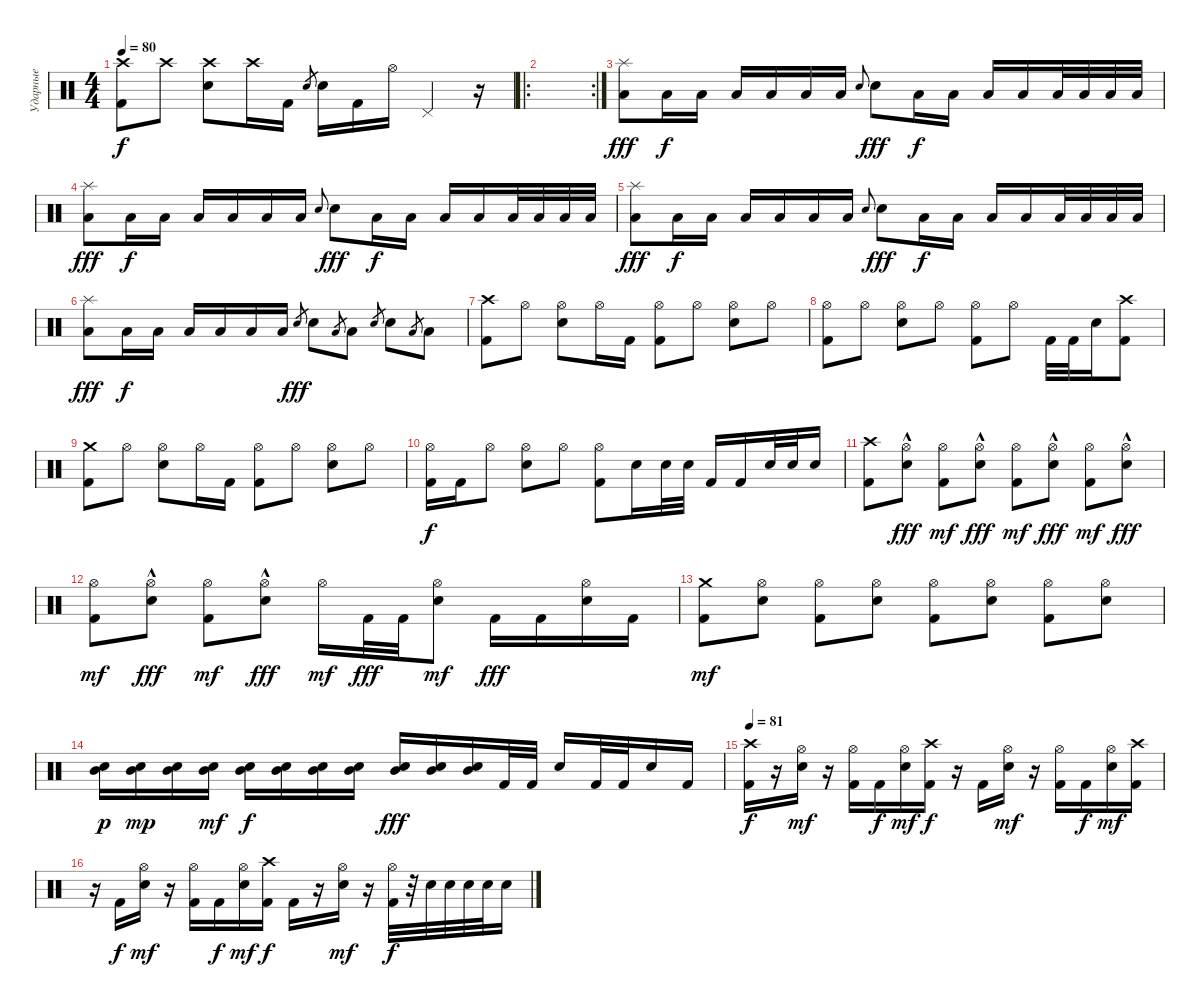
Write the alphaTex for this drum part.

\track ("Ударные" "Ударные") {instrument percussion}
\staff {score}
\articulation defaults
\ts (4 4)
\tempo 80
\clef neutral
\ks c
("Crash high (hit)" "Kick (hit) 2").8{dy f} "Crash high (hit)".8 ("Crash high (hit)" "Electric Snare (hit)").8 "Crash high (hit)".16 "Kick (hit) 2".16 "Electric Snare (hit)".8{gr} "Electric Snare (hit)".16 "Kick (hit) 2".16 "Hi-Hat (open)".16 "Pedal Hi-Hat (hit)".4 r.16 |
\ro
\rc 2
|
("Low Tom (hit)" "Splash (hit)").8{dy fff} "Low Tom (hit)".16{dy f} "Low Tom (hit)".16 "Low Tom (hit)".16 "Low Tom (hit)".16 "Low Tom (hit)".16 "Low Tom (hit)".16 "Electric Snare (hit)".8{gr onbeat} "Electric Snare (hit)".8{dy fff} "Low Tom (hit)".16{dy f} "Low Tom (hit)".16 "Low Tom (hit)".16 "Low Tom (hit)".16 "Low Tom (hit)".32 "Low Tom (hit)".32 "Low Tom (hit)".32 "Low Tom (hit)".32 |
("Low Tom (hit)" "Splash (hit)").8{dy fff} "Low Tom (hit)".16{dy f} "Low Tom (hit)".16 "Low Tom (hit)".16 "Low Tom (hit)".16 "Low Tom (hit)".16 "Low Tom (hit)".16 "Electric Snare (hit)".8{gr onbeat} "Electric Snare (hit)".8{dy fff} "Low Tom (hit)".16{dy f} "Low Tom (hit)".16 "Low Tom (hit)".16 "Low Tom (hit)".16 "Low Tom (hit)".32 "Low Tom (hit)".32 "Low Tom (hit)".32 "Low Tom (hit)".32 |
("Low Tom (hit)" "Splash (hit)").8{dy fff} "Low Tom (hit)".16{dy f} "Low Tom (hit)".16 "Low Tom (hit)".16 "Low Tom (hit)".16 "Low Tom (hit)".16 "Low Tom (hit)".16 "Electric Snare (hit)".8{gr onbeat} "Electric Snare (hit)".8{dy fff} "Low Tom (hit)".16{dy f} "Low Tom (hit)".16 "Low Tom (hit)".16 "Low Tom (hit)".16 "Low Tom (hit)".32 "Low Tom (hit)".32 "Low Tom (hit)".32 "Low Tom (hit)".32 |
("Low Tom (hit)" "Splash (hit)").8{dy fff} "Low Tom (hit)".16{dy f} "Low Tom (hit)".16 "Low Tom (hit)".16 "Low Tom (hit)".16 "Low Tom (hit)".16 "Low Tom (hit)".16 "Electric Snare (hit)".8{gr dy fff} "Electric Snare (hit)".8 "Low Tom (hit)".8{gr} "Low Tom (hit)".8 "Electric Snare (hit)".8{gr} "Electric Snare (hit)".8 "Low Tom (hit)".8{gr} "Low Tom (hit)".8 |
("Crash high (hit)" "Kick (hit) 2").8 "Hi-Hat (open)".8 ("Hi-Hat (open)" "Electric Snare (hit)").8 "Hi-Hat (open)".16 "Kick (hit) 2".16 ("Kick (hit) 2" "Hi-Hat (open)").8 "Hi-Hat (open)".8 ("Hi-Hat (open)" "Electric Snare (hit)").8 "Hi-Hat (open)".8 |
("Hi-Hat (open)" "Kick (hit) 2").8 "Hi-Hat (open)".8 ("Hi-Hat (open)" "Electric Snare (hit)").8 "Hi-Hat (open)".8 ("Hi-Hat (open)" "Kick (hit) 2").8 "Hi-Hat (open)".8 "Kick (hit) 2".32 "Kick (hit) 2".32 "Electric Snare (hit)".16 ("Kick (hit) 2" "Crash high (hit)").8 |
("Crash medium (hit)" "Kick (hit) 2").8 "Hi-Hat (open)".8 ("Hi-Hat (open)" "Electric Snare (hit)").8 "Hi-Hat (open)".16 "Kick (hit) 2".16 ("Kick (hit) 2" "Hi-Hat (open)").8 "Hi-Hat (open)".8 ("Hi-Hat (open)" "Electric Snare (hit)").8 "Hi-Hat (open)".8 |
("Kick (hit) 2" "Hi-Hat (open)").16{dy f} "Kick (hit) 2".16 "Hi-Hat (open)".8 ("Hi-Hat (open)" "Electric Snare (hit)").8 "Hi-Hat (open)".8 ("Hi-Hat (open)" "Kick (hit) 2").8 "Electric Snare (hit)".16 "Electric Snare (hit)".32 "Electric Snare (hit)".32 "Kick (hit) 2".16 "Kick (hit) 2".16 "Electric Snare (hit)".32 "Electric Snare (hit)".32 "Electric Snare (hit)".16 |
("Crash high (hit)" "Kick (hit) 2").8 ("Hi-Hat (open)" "Electric Snare (hit)"{hac}).8{dy fff} ("Hi-Hat (open)" "Kick (hit) 2").8{dy mf} ("Hi-Hat (open)" "Electric Snare (hit)"{hac}).8{dy fff} ("Hi-Hat (open)" "Kick (hit) 2").8{dy mf} ("Hi-Hat (open)" "Electric Snare (hit)"{hac}).8{dy fff} ("Hi-Hat (open)" "Kick (hit) 2").8{dy mf} ("Hi-Hat (open)" "Electric Snare (hit)"{hac}).8{dy fff} |
("Hi-Hat (open)" "Kick (hit) 2").8{dy mf} ("Hi-Hat (open)" "Electric Snare (hit)"{hac}).8{dy fff} ("Hi-Hat (open)" "Kick (hit) 2").8{dy mf} ("Hi-Hat (open)" "Electric Snare (hit)"{hac}).8{dy fff} "Hi-Hat (open)".16{dy mf} "Kick (hit) 2".32{dy fff} "Kick (hit) 2".32 ("Hi-Hat (open)" "Electric Snare (hit)").8{dy mf} "Kick (hit) 2".16{dy fff} "Kick (hit) 2".16 ("Hi-Hat (open)" "Electric Snare (hit)").16 "Kick (hit) 2".16 |
("Crash medium (hit)" "Kick (hit) 2").8{dy mf} ("Hi-Hat (open)" "Electric Snare (hit)").8 ("Hi-Hat (open)" "Kick (hit) 2").8 ("Hi-Hat (open)" "Electric Snare (hit)").8 ("Hi-Hat (open)" "Kick (hit) 2").8 ("Hi-Hat (open)" "Electric Snare (hit)").8 ("Hi-Hat (open)" "Kick (hit) 2").8 ("Hi-Hat (open)" "Electric Snare (hit)").8 |
("Electric Snare (hit)" "Mid Tom (hit)").16{dy p} ("Electric Snare (hit)" "Mid Tom (hit)").16{dy mp} ("Electric Snare (hit)" "Mid Tom (hit)").16 ("Electric Snare (hit)" "Mid Tom (hit)").16{dy mf} ("Electric Snare (hit)" "Mid Tom (hit)").16{dy f} ("Electric Snare (hit)" "Mid Tom (hit)").16 ("Electric Snare (hit)" "Mid Tom (hit)").16 ("Electric Snare (hit)" "Mid Tom (hit)").16 ("Electric Snare (hit)" "Mid Tom (hit)").16{dy fff} ("Electric Snare (hit)" "Mid Tom (hit)").16 ("Electric Snare (hit)" "Mid Tom (hit)").16 "Kick (hit) 2".32 "Kick (hit) 2".32 "Electric Snare (hit)".16 "Kick (hit) 2".32 "Kick (hit) 2".32 "Electric Snare (hit)".16 "Kick (hit) 2".16 |
\tempo 81
("Kick (hit) 2" "Crash high (hit)").16{dy f} r.16 ("Electric Snare (hit)" "Hi-Hat (open)").16{dy mf} r.16 ("Kick (hit) 2" "Hi-Hat (open)").16 "Kick (hit) 2".16{dy f} ("Electric Snare (hit)" "Hi-Hat (open)").16{dy mf} ("Crash high (hit)" "Kick (hit) 2").16{dy f} r.16 "Kick (hit) 2".16 ("Electric Snare (hit)" "Hi-Hat (open)").16{dy mf} r.16 ("Kick (hit) 2" "Hi-Hat (open)").16 "Kick (hit) 2".16{dy f} ("Electric Snare (hit)" "Hi-Hat (open)").16{dy mf} ("Crash high (hit)" "Kick (hit) 2").16 |
r.16 "Kick (hit) 2".16{dy f} ("Electric Snare (hit)" "Hi-Hat (open)").16{dy mf} r.16 ("Kick (hit) 2" "Hi-Hat (open)").16 "Kick (hit) 2".16{dy f} ("Electric Snare (hit)" "Hi-Hat (open)").16{dy mf} ("Crash high (hit)" "Kick (hit) 2").16{dy f} "Kick (hit) 2".16 r.16 ("Electric Snare (hit)" "Hi-Hat (open)").16{dy mf} r.16 ("Hi-Hat (open)" "Kick (hit) 2").32{dy f} r.32 "Electric Snare (hit)".32 "Electric Snare (hit)".32 "Electric Snare (hit)".32 "Electric Snare (hit)".32 "Electric Snare (hit)".16
